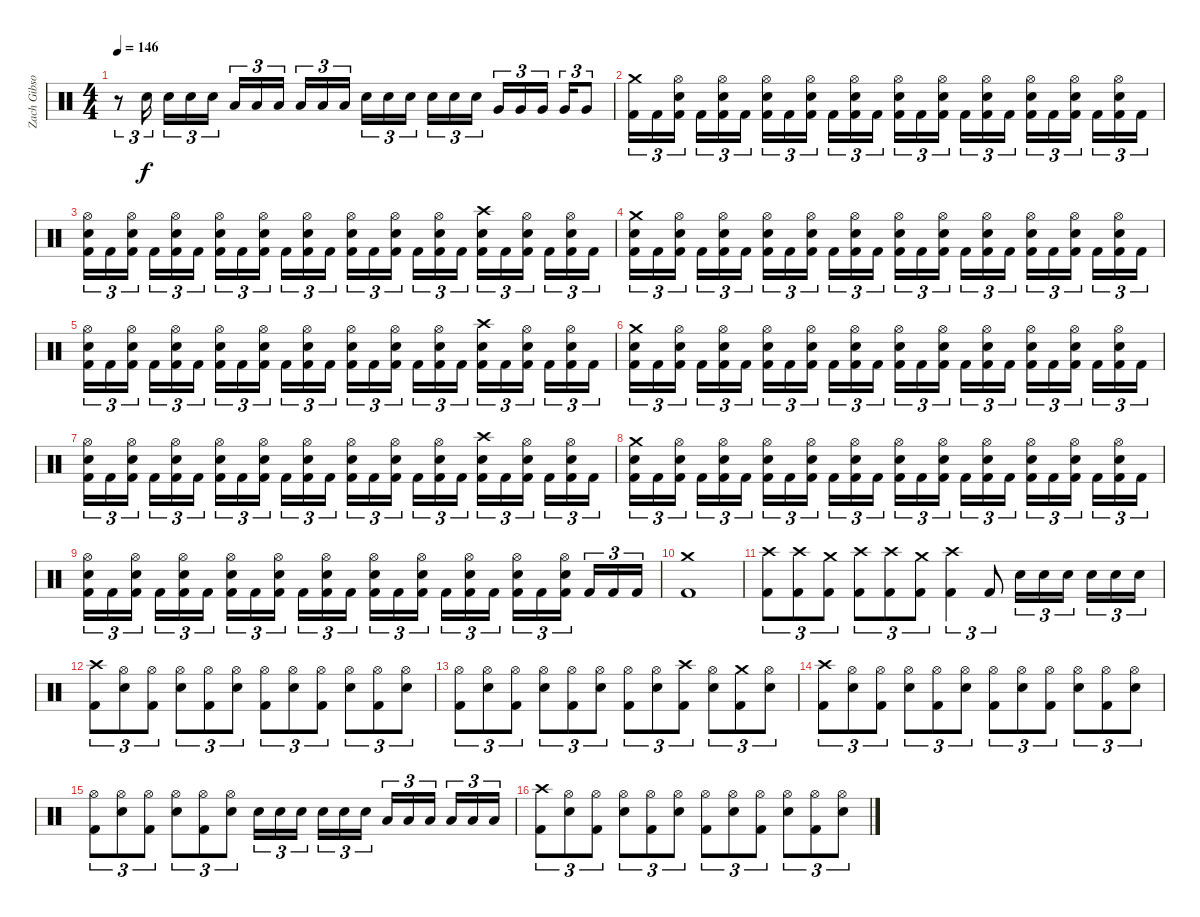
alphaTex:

\track ("Zach Gibson (Drums)" "Zach Gibso") {instrument percussion}
\staff {score}
\articulation defaults
\ts (4 4)
\tempo 146
\clef neutral
\ks c
r.8{tu (3 2) dy f} "Snare (hit) 2".16{tu (3 2)} "Snare (hit) 2".16{tu (3 2)} "Snare (hit) 2".16{tu (3 2)} "Snare (hit) 2".16{tu (3 2)} "Low Tom (hit)".16{tu (3 2)} "Low Tom (hit)".16{tu (3 2)} "Low Tom (hit)".16{tu (3 2)} "Low Tom (hit)".16{tu (3 2)} "Low Tom (hit)".16{tu (3 2)} "Low Tom (hit)".16{tu (3 2)} "Snare (hit) 2".16{tu (3 2)} "Snare (hit) 2".16{tu (3 2)} "Snare (hit) 2".16{tu (3 2)} "Snare (hit) 2".16{tu (3 2)} "Snare (hit) 2".16{tu (3 2)} "Snare (hit) 2".16{tu (3 2)} "Very Low Tom (hit)".16{tu (3 2)} "Very Low Tom (hit)".16{tu (3 2)} "Very Low Tom (hit)".16{tu (3 2)} "Very Low Tom (hit)".16{tu (3 2)} "Very Low Tom (hit)".8{tu (3 2)} |
("Crash medium (hit)" "Kick (hit) 2").16{tu (3 2)} "Kick (hit) 2".16{tu (3 2)} ("Hi-Hat (open)" "Snare (hit) 2" "Kick (hit) 2").16{tu (3 2)} "Kick (hit) 2".16{tu (3 2)} ("Hi-Hat (open)" "Snare (hit) 2" "Kick (hit) 2").16{tu (3 2)} "Kick (hit) 2".16{tu (3 2)} ("Hi-Hat (open)" "Snare (hit) 2" "Kick (hit) 2").16{tu (3 2)} "Kick (hit) 2".16{tu (3 2)} ("Hi-Hat (open)" "Snare (hit) 2" "Kick (hit) 2").16{tu (3 2)} "Kick (hit) 2".16{tu (3 2)} ("Hi-Hat (open)" "Snare (hit) 2" "Kick (hit) 2").16{tu (3 2)} "Kick (hit) 2".16{tu (3 2)} ("Hi-Hat (open)" "Snare (hit) 2" "Kick (hit) 2").16{tu (3 2)} "Kick (hit) 2".16{tu (3 2)} ("Hi-Hat (open)" "Snare (hit) 2" "Kick (hit) 2").16{tu (3 2)} "Kick (hit) 2".16{tu (3 2)} ("Hi-Hat (open)" "Snare (hit) 2" "Kick (hit) 2").16{tu (3 2)} "Kick (hit) 2".16{tu (3 2)} ("Hi-Hat (open)" "Snare (hit) 2" "Kick (hit) 2").16{tu (3 2)} "Kick (hit) 2".16{tu (3 2)} ("Hi-Hat (open)" "Snare (hit) 2" "Kick (hit) 2").16{tu (3 2)} "Kick (hit) 2".16{tu (3 2)} ("Hi-Hat (open)" "Snare (hit) 2" "Kick (hit) 2").16{tu (3 2)} "Kick (hit) 2".16{tu (3 2)} |
("Hi-Hat (open)" "Snare (hit) 2" "Kick (hit) 2").16{tu (3 2)} "Kick (hit) 2".16{tu (3 2)} ("Hi-Hat (open)" "Snare (hit) 2" "Kick (hit) 2").16{tu (3 2)} "Kick (hit) 2".16{tu (3 2)} ("Hi-Hat (open)" "Snare (hit) 2" "Kick (hit) 2").16{tu (3 2)} "Kick (hit) 2".16{tu (3 2)} ("Hi-Hat (open)" "Snare (hit) 2" "Kick (hit) 2").16{tu (3 2)} "Kick (hit) 2".16{tu (3 2)} ("Hi-Hat (open)" "Snare (hit) 2" "Kick (hit) 2").16{tu (3 2)} "Kick (hit) 2".16{tu (3 2)} ("Hi-Hat (open)" "Snare (hit) 2" "Kick (hit) 2").16{tu (3 2)} "Kick (hit) 2".16{tu (3 2)} ("Hi-Hat (open)" "Snare (hit) 2" "Kick (hit) 2").16{tu (3 2)} "Kick (hit) 2".16{tu (3 2)} ("Hi-Hat (open)" "Snare (hit) 2" "Kick (hit) 2").16{tu (3 2)} "Kick (hit) 2".16{tu (3 2)} ("Hi-Hat (open)" "Snare (hit) 2" "Kick (hit) 2").16{tu (3 2)} "Kick (hit) 2".16{tu (3 2)} ("Crash high (hit)" "Snare (hit) 2" "Kick (hit) 2").16{tu (3 2)} "Kick (hit) 2".16{tu (3 2)} ("Hi-Hat (open)" "Snare (hit) 2" "Kick (hit) 2").16{tu (3 2)} "Kick (hit) 2".16{tu (3 2)} ("Hi-Hat (open)" "Snare (hit) 2" "Kick (hit) 2").16{tu (3 2)} "Kick (hit) 2".16{tu (3 2)} |
("Crash medium (hit)" "Snare (hit) 2" "Kick (hit) 2").16{tu (3 2)} "Kick (hit) 2".16{tu (3 2)} ("Hi-Hat (open)" "Snare (hit) 2" "Kick (hit) 2").16{tu (3 2)} "Kick (hit) 2".16{tu (3 2)} ("Hi-Hat (open)" "Snare (hit) 2" "Kick (hit) 2").16{tu (3 2)} "Kick (hit) 2".16{tu (3 2)} ("Hi-Hat (open)" "Snare (hit) 2" "Kick (hit) 2").16{tu (3 2)} "Kick (hit) 2".16{tu (3 2)} ("Hi-Hat (open)" "Snare (hit) 2" "Kick (hit) 2").16{tu (3 2)} "Kick (hit) 2".16{tu (3 2)} ("Hi-Hat (open)" "Snare (hit) 2" "Kick (hit) 2").16{tu (3 2)} "Kick (hit) 2".16{tu (3 2)} ("Hi-Hat (open)" "Snare (hit) 2" "Kick (hit) 2").16{tu (3 2)} "Kick (hit) 2".16{tu (3 2)} ("Hi-Hat (open)" "Snare (hit) 2" "Kick (hit) 2").16{tu (3 2)} "Kick (hit) 2".16{tu (3 2)} ("Hi-Hat (open)" "Snare (hit) 2" "Kick (hit) 2").16{tu (3 2)} "Kick (hit) 2".16{tu (3 2)} ("Hi-Hat (open)" "Snare (hit) 2" "Kick (hit) 2").16{tu (3 2)} "Kick (hit) 2".16{tu (3 2)} ("Hi-Hat (open)" "Snare (hit) 2" "Kick (hit) 2").16{tu (3 2)} "Kick (hit) 2".16{tu (3 2)} ("Hi-Hat (open)" "Snare (hit) 2" "Kick (hit) 2").16{tu (3 2)} "Kick (hit) 2".16{tu (3 2)} |
("Hi-Hat (open)" "Snare (hit) 2" "Kick (hit) 2").16{tu (3 2)} "Kick (hit) 2".16{tu (3 2)} ("Hi-Hat (open)" "Snare (hit) 2" "Kick (hit) 2").16{tu (3 2)} "Kick (hit) 2".16{tu (3 2)} ("Hi-Hat (open)" "Snare (hit) 2" "Kick (hit) 2").16{tu (3 2)} "Kick (hit) 2".16{tu (3 2)} ("Hi-Hat (open)" "Snare (hit) 2" "Kick (hit) 2").16{tu (3 2)} "Kick (hit) 2".16{tu (3 2)} ("Hi-Hat (open)" "Snare (hit) 2" "Kick (hit) 2").16{tu (3 2)} "Kick (hit) 2".16{tu (3 2)} ("Hi-Hat (open)" "Snare (hit) 2" "Kick (hit) 2").16{tu (3 2)} "Kick (hit) 2".16{tu (3 2)} ("Hi-Hat (open)" "Snare (hit) 2" "Kick (hit) 2").16{tu (3 2)} "Kick (hit) 2".16{tu (3 2)} ("Hi-Hat (open)" "Snare (hit) 2" "Kick (hit) 2").16{tu (3 2)} "Kick (hit) 2".16{tu (3 2)} ("Hi-Hat (open)" "Snare (hit) 2" "Kick (hit) 2").16{tu (3 2)} "Kick (hit) 2".16{tu (3 2)} ("Crash high (hit)" "Snare (hit) 2" "Kick (hit) 2").16{tu (3 2)} "Kick (hit) 2".16{tu (3 2)} ("Hi-Hat (open)" "Snare (hit) 2" "Kick (hit) 2").16{tu (3 2)} "Kick (hit) 2".16{tu (3 2)} ("Hi-Hat (open)" "Snare (hit) 2" "Kick (hit) 2").16{tu (3 2)} "Kick (hit) 2".16{tu (3 2)} |
("Crash medium (hit)" "Snare (hit) 2" "Kick (hit) 2").16{tu (3 2)} "Kick (hit) 2".16{tu (3 2)} ("Hi-Hat (open)" "Snare (hit) 2" "Kick (hit) 2").16{tu (3 2)} "Kick (hit) 2".16{tu (3 2)} ("Hi-Hat (open)" "Snare (hit) 2" "Kick (hit) 2").16{tu (3 2)} "Kick (hit) 2".16{tu (3 2)} ("Hi-Hat (open)" "Snare (hit) 2" "Kick (hit) 2").16{tu (3 2)} "Kick (hit) 2".16{tu (3 2)} ("Hi-Hat (open)" "Snare (hit) 2" "Kick (hit) 2").16{tu (3 2)} "Kick (hit) 2".16{tu (3 2)} ("Hi-Hat (open)" "Snare (hit) 2" "Kick (hit) 2").16{tu (3 2)} "Kick (hit) 2".16{tu (3 2)} ("Hi-Hat (open)" "Snare (hit) 2" "Kick (hit) 2").16{tu (3 2)} "Kick (hit) 2".16{tu (3 2)} ("Hi-Hat (open)" "Snare (hit) 2" "Kick (hit) 2").16{tu (3 2)} "Kick (hit) 2".16{tu (3 2)} ("Hi-Hat (open)" "Snare (hit) 2" "Kick (hit) 2").16{tu (3 2)} "Kick (hit) 2".16{tu (3 2)} ("Hi-Hat (open)" "Snare (hit) 2" "Kick (hit) 2").16{tu (3 2)} "Kick (hit) 2".16{tu (3 2)} ("Hi-Hat (open)" "Snare (hit) 2" "Kick (hit) 2").16{tu (3 2)} "Kick (hit) 2".16{tu (3 2)} ("Hi-Hat (open)" "Snare (hit) 2" "Kick (hit) 2").16{tu (3 2)} "Kick (hit) 2".16{tu (3 2)} |
("Hi-Hat (open)" "Snare (hit) 2" "Kick (hit) 2").16{tu (3 2)} "Kick (hit) 2".16{tu (3 2)} ("Hi-Hat (open)" "Snare (hit) 2" "Kick (hit) 2").16{tu (3 2)} "Kick (hit) 2".16{tu (3 2)} ("Hi-Hat (open)" "Snare (hit) 2" "Kick (hit) 2").16{tu (3 2)} "Kick (hit) 2".16{tu (3 2)} ("Hi-Hat (open)" "Snare (hit) 2" "Kick (hit) 2").16{tu (3 2)} "Kick (hit) 2".16{tu (3 2)} ("Hi-Hat (open)" "Snare (hit) 2" "Kick (hit) 2").16{tu (3 2)} "Kick (hit) 2".16{tu (3 2)} ("Hi-Hat (open)" "Snare (hit) 2" "Kick (hit) 2").16{tu (3 2)} "Kick (hit) 2".16{tu (3 2)} ("Hi-Hat (open)" "Snare (hit) 2" "Kick (hit) 2").16{tu (3 2)} "Kick (hit) 2".16{tu (3 2)} ("Hi-Hat (open)" "Snare (hit) 2" "Kick (hit) 2").16{tu (3 2)} "Kick (hit) 2".16{tu (3 2)} ("Hi-Hat (open)" "Snare (hit) 2" "Kick (hit) 2").16{tu (3 2)} "Kick (hit) 2".16{tu (3 2)} ("Crash high (hit)" "Snare (hit) 2" "Kick (hit) 2").16{tu (3 2)} "Kick (hit) 2".16{tu (3 2)} ("Hi-Hat (open)" "Snare (hit) 2" "Kick (hit) 2").16{tu (3 2)} "Kick (hit) 2".16{tu (3 2)} ("Hi-Hat (open)" "Snare (hit) 2" "Kick (hit) 2").16{tu (3 2)} "Kick (hit) 2".16{tu (3 2)} |
("Crash medium (hit)" "Snare (hit) 2" "Kick (hit) 2").16{tu (3 2)} "Kick (hit) 2".16{tu (3 2)} ("Hi-Hat (open)" "Snare (hit) 2" "Kick (hit) 2").16{tu (3 2)} "Kick (hit) 2".16{tu (3 2)} ("Hi-Hat (open)" "Snare (hit) 2" "Kick (hit) 2").16{tu (3 2)} "Kick (hit) 2".16{tu (3 2)} ("Hi-Hat (open)" "Snare (hit) 2" "Kick (hit) 2").16{tu (3 2)} "Kick (hit) 2".16{tu (3 2)} ("Hi-Hat (open)" "Snare (hit) 2" "Kick (hit) 2").16{tu (3 2)} "Kick (hit) 2".16{tu (3 2)} ("Hi-Hat (open)" "Snare (hit) 2" "Kick (hit) 2").16{tu (3 2)} "Kick (hit) 2".16{tu (3 2)} ("Hi-Hat (open)" "Snare (hit) 2" "Kick (hit) 2").16{tu (3 2)} "Kick (hit) 2".16{tu (3 2)} ("Hi-Hat (open)" "Snare (hit) 2" "Kick (hit) 2").16{tu (3 2)} "Kick (hit) 2".16{tu (3 2)} ("Hi-Hat (open)" "Snare (hit) 2" "Kick (hit) 2").16{tu (3 2)} "Kick (hit) 2".16{tu (3 2)} ("Hi-Hat (open)" "Snare (hit) 2" "Kick (hit) 2").16{tu (3 2)} "Kick (hit) 2".16{tu (3 2)} ("Hi-Hat (open)" "Snare (hit) 2" "Kick (hit) 2").16{tu (3 2)} "Kick (hit) 2".16{tu (3 2)} ("Hi-Hat (open)" "Snare (hit) 2" "Kick (hit) 2").16{tu (3 2)} "Kick (hit) 2".16{tu (3 2)} |
("Hi-Hat (open)" "Snare (hit) 2" "Kick (hit) 2").16{tu (3 2)} "Kick (hit) 2".16{tu (3 2)} ("Hi-Hat (open)" "Snare (hit) 2" "Kick (hit) 2").16{tu (3 2)} "Kick (hit) 2".16{tu (3 2)} ("Hi-Hat (open)" "Snare (hit) 2" "Kick (hit) 2").16{tu (3 2)} "Kick (hit) 2".16{tu (3 2)} ("Hi-Hat (open)" "Snare (hit) 2" "Kick (hit) 2").16{tu (3 2)} "Kick (hit) 2".16{tu (3 2)} ("Hi-Hat (open)" "Snare (hit) 2" "Kick (hit) 2").16{tu (3 2)} "Kick (hit) 2".16{tu (3 2)} ("Hi-Hat (open)" "Snare (hit) 2" "Kick (hit) 2").16{tu (3 2)} "Kick (hit) 2".16{tu (3 2)} ("Hi-Hat (open)" "Snare (hit) 2" "Kick (hit) 2").16{tu (3 2)} "Kick (hit) 2".16{tu (3 2)} ("Hi-Hat (open)" "Snare (hit) 2" "Kick (hit) 2").16{tu (3 2)} "Kick (hit) 2".16{tu (3 2)} ("Hi-Hat (open)" "Snare (hit) 2" "Kick (hit) 2").16{tu (3 2)} "Kick (hit) 2".16{tu (3 2)} ("Hi-Hat (open)" "Snare (hit) 2" "Kick (hit) 2").16{tu (3 2)} "Kick (hit) 2".16{tu (3 2)} ("Hi-Hat (open)" "Snare (hit) 2" "Kick (hit) 2").16{tu (3 2)} "Kick (hit) 2".16{tu (3 2)} "Kick (hit) 2".16{tu (3 2)} "Kick (hit) 2".16{tu (3 2)} |
("Crash medium (hit)" "Kick (hit) 2").1 |
("Crash high (hit)" "Kick (hit) 2").8{tu (3 2)} ("Crash high (hit)" "Kick (hit) 2").8{tu (3 2)} ("Crash medium (hit)" "Kick (hit) 2").8{tu (3 2)} ("Crash high (hit)" "Kick (hit) 2").8{tu (3 2)} ("Crash high (hit)" "Kick (hit) 2").8{tu (3 2)} ("Crash medium (hit)" "Kick (hit) 2").8{tu (3 2)} ("Crash high (hit)" "Kick (hit) 2").4{tu (3 2)} "Kick (hit) 2".8{tu (3 2)} "Snare (hit) 2".16{tu (3 2)} "Snare (hit) 2".16{tu (3 2)} "Snare (hit) 2".16{tu (3 2)} "Snare (hit) 2".16{tu (3 2)} "Snare (hit) 2".16{tu (3 2)} "Snare (hit) 2".16{tu (3 2)} |
("Crash high (hit)" "Kick (hit) 2").8{tu (3 2)} ("Hi-Hat (open)" "Snare (hit) 2").8{tu (3 2)} ("Hi-Hat (open)" "Kick (hit) 2").8{tu (3 2)} ("Hi-Hat (open)" "Snare (hit) 2").8{tu (3 2)} ("Hi-Hat (open)" "Kick (hit) 2").8{tu (3 2)} ("Hi-Hat (open)" "Snare (hit) 2").8{tu (3 2)} ("Hi-Hat (open)" "Kick (hit) 2").8{tu (3 2)} ("Hi-Hat (open)" "Snare (hit) 2").8{tu (3 2)} ("Hi-Hat (open)" "Kick (hit) 2").8{tu (3 2)} ("Hi-Hat (open)" "Snare (hit) 2").8{tu (3 2)} ("Hi-Hat (open)" "Kick (hit) 2").8{tu (3 2)} ("Hi-Hat (open)" "Snare (hit) 2").8{tu (3 2)} |
("Hi-Hat (open)" "Kick (hit) 2").8{tu (3 2)} ("Hi-Hat (open)" "Snare (hit) 2").8{tu (3 2)} ("Hi-Hat (open)" "Kick (hit) 2").8{tu (3 2)} ("Hi-Hat (open)" "Snare (hit) 2").8{tu (3 2)} ("Hi-Hat (open)" "Kick (hit) 2").8{tu (3 2)} ("Hi-Hat (open)" "Snare (hit) 2").8{tu (3 2)} ("Hi-Hat (open)" "Kick (hit) 2").8{tu (3 2)} ("Hi-Hat (open)" "Snare (hit) 2").8{tu (3 2)} ("Crash high (hit)" "Kick (hit) 2").8{tu (3 2)} ("Hi-Hat (open)" "Snare (hit) 2").8{tu (3 2)} ("Crash medium (hit)" "Kick (hit) 2").8{tu (3 2)} ("Hi-Hat (open)" "Snare (hit) 2").8{tu (3 2)} |
("Crash high (hit)" "Kick (hit) 2").8{tu (3 2)} ("Hi-Hat (open)" "Snare (hit) 2").8{tu (3 2)} ("Hi-Hat (open)" "Kick (hit) 2").8{tu (3 2)} ("Hi-Hat (open)" "Snare (hit) 2").8{tu (3 2)} ("Hi-Hat (open)" "Kick (hit) 2").8{tu (3 2)} ("Hi-Hat (open)" "Snare (hit) 2").8{tu (3 2)} ("Hi-Hat (open)" "Kick (hit) 2").8{tu (3 2)} ("Hi-Hat (open)" "Snare (hit) 2").8{tu (3 2)} ("Hi-Hat (open)" "Kick (hit) 2").8{tu (3 2)} ("Hi-Hat (open)" "Snare (hit) 2").8{tu (3 2)} ("Hi-Hat (open)" "Kick (hit) 2").8{tu (3 2)} ("Hi-Hat (open)" "Snare (hit) 2").8{tu (3 2)} |
("Hi-Hat (open)" "Kick (hit) 2").8{tu (3 2)} ("Hi-Hat (open)" "Snare (hit) 2").8{tu (3 2)} ("Hi-Hat (open)" "Kick (hit) 2").8{tu (3 2)} ("Hi-Hat (open)" "Snare (hit) 2").8{tu (3 2)} ("Hi-Hat (open)" "Kick (hit) 2").8{tu (3 2)} ("Hi-Hat (open)" "Snare (hit) 2").8{tu (3 2)} "Snare (hit) 2".16{tu (3 2)} "Snare (hit) 2".16{tu (3 2)} "Snare (hit) 2".16{tu (3 2)} "Snare (hit) 2".16{tu (3 2)} "Snare (hit) 2".16{tu (3 2)} "Snare (hit) 2".16{tu (3 2)} "Low Tom (hit)".16{tu (3 2)} "Low Tom (hit)".16{tu (3 2)} "Low Tom (hit)".16{tu (3 2)} "Low Tom (hit)".16{tu (3 2)} "Low Tom (hit)".16{tu (3 2)} "Low Tom (hit)".16{tu (3 2)} |
("Crash high (hit)" "Kick (hit) 2").8{tu (3 2)} ("Hi-Hat (open)" "Snare (hit) 2").8{tu (3 2)} ("Hi-Hat (open)" "Kick (hit) 2").8{tu (3 2)} ("Hi-Hat (open)" "Snare (hit) 2").8{tu (3 2)} ("Hi-Hat (open)" "Kick (hit) 2").8{tu (3 2)} ("Hi-Hat (open)" "Snare (hit) 2").8{tu (3 2)} ("Hi-Hat (open)" "Kick (hit) 2").8{tu (3 2)} ("Hi-Hat (open)" "Snare (hit) 2").8{tu (3 2)} ("Hi-Hat (open)" "Kick (hit) 2").8{tu (3 2)} ("Hi-Hat (open)" "Snare (hit) 2").8{tu (3 2)} ("Hi-Hat (open)" "Kick (hit) 2").8{tu (3 2)} ("Hi-Hat (open)" "Snare (hit) 2").8{tu (3 2)}
